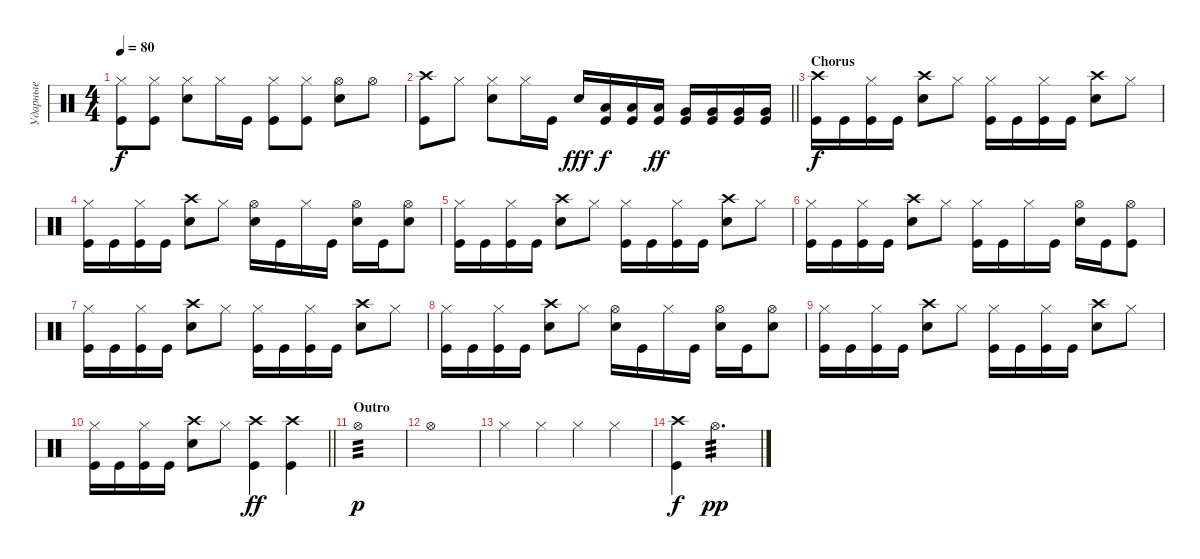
\track ("Ударные" "Ударные") {instrument percussion}
\staff {score}
\articulation defaults
\ts (4 4)
\tempo 80
\clef neutral
\ks aminor
("Kick (hit)" "Hi-Hat (closed)").8{dy f} ("Kick (hit)" "Hi-Hat (closed)").8 ("Hi-Hat (closed)" "Snare (hit) 2").8 "Hi-Hat (closed)".16 "Kick (hit)".16 ("Kick (hit)" "Hi-Hat (closed)").8 ("Kick (hit)" "Hi-Hat (closed)").8 ("Snare (hit) 2" "Hi-Hat (open)").8 "Hi-Hat (open)".8 |
\barLineRight lightlight
("Kick (hit)" "Crash high (hit)").8 "Hi-Hat (closed)".8 ("Hi-Hat (closed)" "Snare (hit) 2").8 "Hi-Hat (closed)".16 "Kick (hit)".16 "Snare (hit) 2".16{bd 480 dy fff} ("Kick (hit)" "Low Tom (hit)").16{dy f} ("Kick (hit)" "Low Tom (hit)").16 ("Kick (hit)" "Low Tom (hit)").16{dy ff} ("Kick (hit)" "Very Low Tom (hit)").16 ("Kick (hit)" "Very Low Tom (hit)").16 ("Kick (hit)" "Very Low Tom (hit)").16 ("Kick (hit)" "Very Low Tom (hit)").16 |
\section ("" "Chorus")
("Kick (hit)" "Crash high (hit)").16{dy f} "Kick (hit)".16 ("Kick (hit)" "Hi-Hat (closed)").16 "Kick (hit)".16 ("Snare (hit) 2" "Crash high (hit)").8 "Hi-Hat (closed)".8 ("Kick (hit)" "Hi-Hat (closed)").16 "Kick (hit)".16 ("Kick (hit)" "Hi-Hat (closed)").16 "Kick (hit)".16 ("Snare (hit) 2" "Crash high (hit)").8 "Hi-Hat (closed)".8 |
("Kick (hit)" "Hi-Hat (closed)").16 "Kick (hit)".16 ("Kick (hit)" "Hi-Hat (closed)").16 "Kick (hit)".16 ("Snare (hit) 2" "Crash high (hit)").8 "Hi-Hat (closed)".8 ("Hi-Hat (open)" "Snare (hit) 2").16 "Kick (hit)".16 "Hi-Hat (closed)".16 "Kick (hit)".16 ("Snare (hit) 2" "Hi-Hat (open)").16 "Kick (hit)".16 ("Hi-Hat (open)" "Snare (hit) 2").8 |
("Kick (hit)" "Hi-Hat (closed)").16 "Kick (hit)".16 ("Kick (hit)" "Hi-Hat (closed)").16 "Kick (hit)".16 ("Snare (hit) 2" "Crash high (hit)").8 "Hi-Hat (closed)".8 ("Kick (hit)" "Hi-Hat (closed)").16 "Kick (hit)".16 ("Kick (hit)" "Hi-Hat (closed)").16 "Kick (hit)".16 ("Snare (hit) 2" "Crash high (hit)").8 "Hi-Hat (closed)".8 |
("Kick (hit)" "Hi-Hat (closed)").16 "Kick (hit)".16 ("Kick (hit)" "Hi-Hat (closed)").16 "Kick (hit)".16 ("Snare (hit) 2" "Crash high (hit)").8 "Hi-Hat (closed)".8 ("Hi-Hat (closed)" "Kick (hit)").16 "Kick (hit)".16 "Hi-Hat (closed)".16 "Kick (hit)".16 ("Snare (hit) 2" "Hi-Hat (open)").16 "Kick (hit)".16 ("Hi-Hat (open)" "Kick (hit)").8 |
("Kick (hit)" "Hi-Hat (closed)").16 "Kick (hit)".16 ("Kick (hit)" "Hi-Hat (closed)").16 "Kick (hit)".16 ("Snare (hit) 2" "Crash high (hit)").8 "Hi-Hat (closed)".8 ("Kick (hit)" "Hi-Hat (closed)").16 "Kick (hit)".16 ("Kick (hit)" "Hi-Hat (closed)").16 "Kick (hit)".16 ("Snare (hit) 2" "Crash high (hit)").8 "Hi-Hat (closed)".8 |
("Kick (hit)" "Hi-Hat (closed)").16 "Kick (hit)".16 ("Kick (hit)" "Hi-Hat (closed)").16 "Kick (hit)".16 ("Snare (hit) 2" "Crash high (hit)").8 "Hi-Hat (closed)".8 ("Hi-Hat (open)" "Snare (hit) 2").16 "Kick (hit)".16 "Hi-Hat (closed)".16 "Kick (hit)".16 ("Snare (hit) 2" "Hi-Hat (open)").16 "Kick (hit)".16 ("Hi-Hat (open)" "Snare (hit) 2").8 |
("Kick (hit)" "Hi-Hat (closed)").16 "Kick (hit)".16 ("Kick (hit)" "Hi-Hat (closed)").16 "Kick (hit)".16 ("Snare (hit) 2" "Crash high (hit)").8 "Hi-Hat (closed)".8 ("Kick (hit)" "Hi-Hat (closed)").16 "Kick (hit)".16 ("Kick (hit)" "Hi-Hat (closed)").16 "Kick (hit)".16 ("Snare (hit) 2" "Crash high (hit)").8 "Hi-Hat (closed)".8 |
\barLineRight lightlight
("Kick (hit)" "Hi-Hat (closed)").16 "Kick (hit)".16 ("Kick (hit)" "Hi-Hat (closed)").16 "Kick (hit)".16 ("Snare (hit) 2" "Crash high (hit)").8 "Hi-Hat (closed)".8 ("Kick (hit)" "Crash high (hit)").4{dy ff} ("Kick (hit)" "Crash high (hit)").4 |
\section ("" "Outro")
"Hi-Hat (open)".1{tp 3 dy p} |
"Hi-Hat (open)".1 |
"Hi-Hat (closed)".4 "Hi-Hat (closed)".4 "Hi-Hat (closed)".4 "Hi-Hat (closed)".4 |
("Kick (hit)" "Crash high (hit)").4{dy f} "Hi-Hat (open)".2{d tp 3 dy pp}
